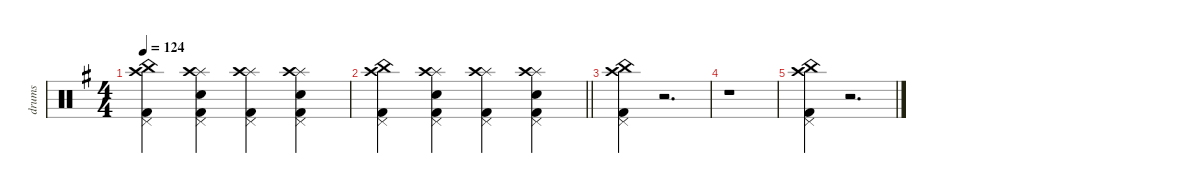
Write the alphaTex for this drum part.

\defaultSystemsLayout 4
\hideDynamics
\bracketExtendMode nobrackets
\otherSystemsTrackNameOrientation horizontal
\track ("drums" "drums") {instrument percussion}
\staff {score}
\articulation defaults
\ts (4 4)
\tempo 124
\clef neutral
\scale
1.07945
\ks eminor
("Kick (hit) 2"{acc forcenatural} "China (hit)"{acc forcenatural} "Crash high (hit)"{acc forcenatural} "Pedal Hi-Hat (hit)"{acc forcenatural}).4{dy mf beam Down} ("Kick (hit) 2"{acc forcenatural} "Pedal Hi-Hat (hit)"{acc forcenatural} "Snare (hit) 2"{acc forcenatural} "Splash (hit)"{acc forcenatural} "Crash high (hit)"{acc forcenatural}).4{beam Down} ("Kick (hit) 2"{acc forcenatural} "Pedal Hi-Hat (hit)"{acc forcenatural} "Splash (hit)"{acc forcenatural} "Crash high (hit)"{acc forcenatural}).4{beam Down} ("Kick (hit) 2"{acc forcenatural} "Pedal Hi-Hat (hit)"{acc forcenatural} "Snare (hit) 2"{acc forcenatural} "Splash (hit)"{acc forcenatural} "Crash high (hit)"{acc forcenatural}).4{beam Down} |
\scale
0.973518
\barLineRight lightlight
("Kick (hit) 2"{acc forcenatural} "China (hit)"{acc forcenatural} "Crash high (hit)"{acc forcenatural} "Pedal Hi-Hat (hit)"{acc forcenatural}).4{beam Down} ("Kick (hit) 2"{acc forcenatural} "Pedal Hi-Hat (hit)"{acc forcenatural} "Snare (hit) 2"{acc forcenatural} "Splash (hit)"{acc forcenatural} "Crash high (hit)"{acc forcenatural}).4{beam Down} ("Kick (hit) 2"{acc forcenatural} "Pedal Hi-Hat (hit)"{acc forcenatural} "Splash (hit)"{acc forcenatural} "Crash high (hit)"{acc forcenatural}).4{beam Down} ("Kick (hit) 2"{acc forcenatural} "Pedal Hi-Hat (hit)"{acc forcenatural} "Snare (hit) 2"{acc forcenatural} "Splash (hit)"{acc forcenatural} "Crash high (hit)"{acc forcenatural}).4{beam Down} |
\scale
0.973518 ("Kick (hit) 2"{acc forcenatural} "China (hit)"{acc forcenatural} "Crash high (hit)"{acc forcenatural} "Pedal Hi-Hat (hit)"{acc forcenatural}).4{beam Down} r.2{d beam Down} |
\scale
0.973518 r.1{beam Down} |
\scale
1.02648 ("Kick (hit) 2"{acc forcenatural} "China (hit)"{acc forcenatural} "Crash high (hit)"{acc forcenatural} "Pedal Hi-Hat (hit)"{acc forcenatural}).4{beam Down} r.2{d beam Down}
